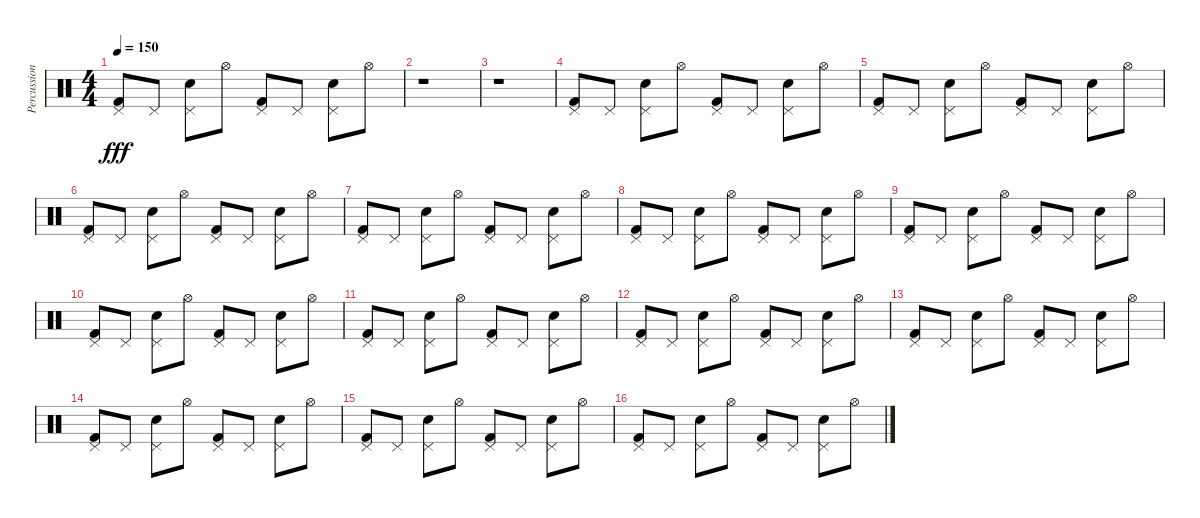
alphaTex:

\track ("Percussions" "Percussion") {instrument percussion}
\staff {score}
\articulation defaults
\ts (4 4)
\tempo 150
\clef neutral
\ks c
("Pedal Hi-Hat (hit)" "Kick (hit) 2").8{dy fff} "Pedal Hi-Hat (hit)".8 ("Pedal Hi-Hat (hit)" "Electric Snare (hit)").8 "Hi-Hat (open)".8 ("Pedal Hi-Hat (hit)" "Kick (hit) 2").8 "Pedal Hi-Hat (hit)".8 ("Pedal Hi-Hat (hit)" "Electric Snare (hit)").8 "Hi-Hat (open)".8 |
r.1 |
r.1 |
("Pedal Hi-Hat (hit)" "Kick (hit) 2").8 "Pedal Hi-Hat (hit)".8 ("Pedal Hi-Hat (hit)" "Electric Snare (hit)").8 "Hi-Hat (open)".8 ("Pedal Hi-Hat (hit)" "Kick (hit) 2").8 "Pedal Hi-Hat (hit)".8 ("Pedal Hi-Hat (hit)" "Electric Snare (hit)").8 "Hi-Hat (open)".8 |
("Pedal Hi-Hat (hit)" "Kick (hit) 2").8 "Pedal Hi-Hat (hit)".8 ("Pedal Hi-Hat (hit)" "Electric Snare (hit)").8 "Hi-Hat (open)".8 ("Pedal Hi-Hat (hit)" "Kick (hit) 2").8 "Pedal Hi-Hat (hit)".8 ("Pedal Hi-Hat (hit)" "Electric Snare (hit)").8 "Hi-Hat (open)".8 |
("Pedal Hi-Hat (hit)" "Kick (hit) 2").8 "Pedal Hi-Hat (hit)".8 ("Pedal Hi-Hat (hit)" "Electric Snare (hit)").8 "Hi-Hat (open)".8 ("Pedal Hi-Hat (hit)" "Kick (hit) 2").8 "Pedal Hi-Hat (hit)".8 ("Pedal Hi-Hat (hit)" "Electric Snare (hit)").8 "Hi-Hat (open)".8 |
("Pedal Hi-Hat (hit)" "Kick (hit) 2").8 "Pedal Hi-Hat (hit)".8 ("Pedal Hi-Hat (hit)" "Electric Snare (hit)").8 "Hi-Hat (open)".8 ("Pedal Hi-Hat (hit)" "Kick (hit) 2").8 "Pedal Hi-Hat (hit)".8 ("Pedal Hi-Hat (hit)" "Electric Snare (hit)").8 "Hi-Hat (open)".8 |
("Pedal Hi-Hat (hit)" "Kick (hit) 2").8 "Pedal Hi-Hat (hit)".8 ("Pedal Hi-Hat (hit)" "Electric Snare (hit)").8 "Hi-Hat (open)".8 ("Pedal Hi-Hat (hit)" "Kick (hit) 2").8 "Pedal Hi-Hat (hit)".8 ("Pedal Hi-Hat (hit)" "Electric Snare (hit)").8 "Hi-Hat (open)".8 |
("Pedal Hi-Hat (hit)" "Kick (hit) 2").8 "Pedal Hi-Hat (hit)".8 ("Pedal Hi-Hat (hit)" "Electric Snare (hit)").8 "Hi-Hat (open)".8 ("Pedal Hi-Hat (hit)" "Kick (hit) 2").8 "Pedal Hi-Hat (hit)".8 ("Pedal Hi-Hat (hit)" "Electric Snare (hit)").8 "Hi-Hat (open)".8 |
("Pedal Hi-Hat (hit)" "Kick (hit) 2").8 "Pedal Hi-Hat (hit)".8 ("Pedal Hi-Hat (hit)" "Electric Snare (hit)").8 "Hi-Hat (open)".8 ("Pedal Hi-Hat (hit)" "Kick (hit) 2").8 "Pedal Hi-Hat (hit)".8 ("Pedal Hi-Hat (hit)" "Electric Snare (hit)").8 "Hi-Hat (open)".8 |
("Pedal Hi-Hat (hit)" "Kick (hit) 2").8 "Pedal Hi-Hat (hit)".8 ("Pedal Hi-Hat (hit)" "Electric Snare (hit)").8 "Hi-Hat (open)".8 ("Pedal Hi-Hat (hit)" "Kick (hit) 2").8 "Pedal Hi-Hat (hit)".8 ("Pedal Hi-Hat (hit)" "Electric Snare (hit)").8 "Hi-Hat (open)".8 |
("Pedal Hi-Hat (hit)" "Kick (hit) 2").8 "Pedal Hi-Hat (hit)".8 ("Pedal Hi-Hat (hit)" "Electric Snare (hit)").8 "Hi-Hat (open)".8 ("Pedal Hi-Hat (hit)" "Kick (hit) 2").8 "Pedal Hi-Hat (hit)".8 ("Pedal Hi-Hat (hit)" "Electric Snare (hit)").8 "Hi-Hat (open)".8 |
("Pedal Hi-Hat (hit)" "Kick (hit) 2").8 "Pedal Hi-Hat (hit)".8 ("Pedal Hi-Hat (hit)" "Electric Snare (hit)").8 "Hi-Hat (open)".8 ("Pedal Hi-Hat (hit)" "Kick (hit) 2").8 "Pedal Hi-Hat (hit)".8 ("Pedal Hi-Hat (hit)" "Electric Snare (hit)").8 "Hi-Hat (open)".8 |
("Pedal Hi-Hat (hit)" "Kick (hit) 2").8 "Pedal Hi-Hat (hit)".8 ("Pedal Hi-Hat (hit)" "Electric Snare (hit)").8 "Hi-Hat (open)".8 ("Pedal Hi-Hat (hit)" "Kick (hit) 2").8 "Pedal Hi-Hat (hit)".8 ("Pedal Hi-Hat (hit)" "Electric Snare (hit)").8 "Hi-Hat (open)".8 |
("Pedal Hi-Hat (hit)" "Kick (hit) 2").8 "Pedal Hi-Hat (hit)".8 ("Pedal Hi-Hat (hit)" "Electric Snare (hit)").8 "Hi-Hat (open)".8 ("Pedal Hi-Hat (hit)" "Kick (hit) 2").8 "Pedal Hi-Hat (hit)".8 ("Pedal Hi-Hat (hit)" "Electric Snare (hit)").8 "Hi-Hat (open)".8 |
("Pedal Hi-Hat (hit)" "Kick (hit) 2").8 "Pedal Hi-Hat (hit)".8 ("Pedal Hi-Hat (hit)" "Electric Snare (hit)").8 "Hi-Hat (open)".8 ("Pedal Hi-Hat (hit)" "Kick (hit) 2").8 "Pedal Hi-Hat (hit)".8 ("Pedal Hi-Hat (hit)" "Electric Snare (hit)").8 "Hi-Hat (open)".8
